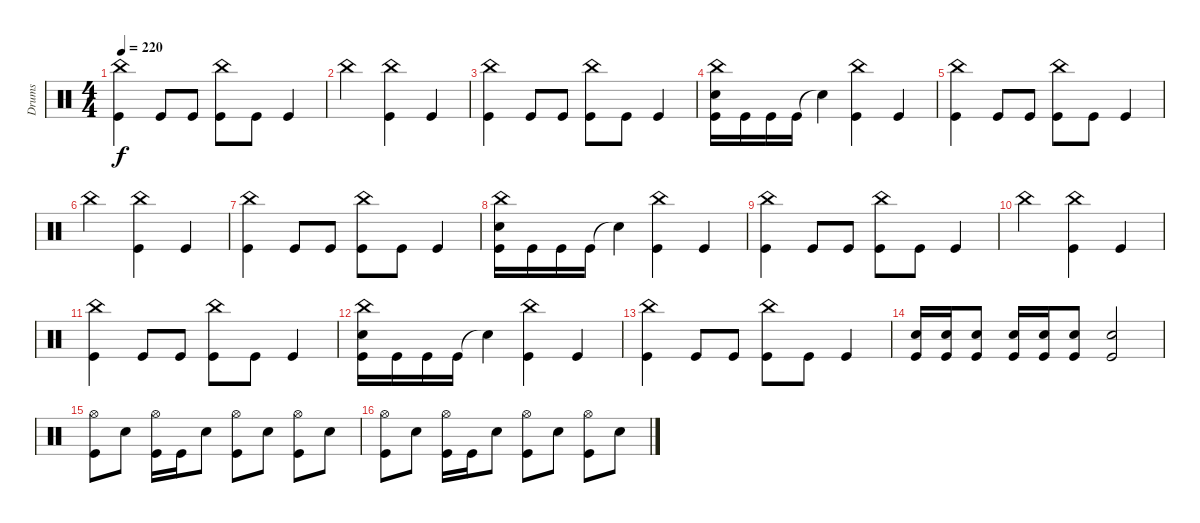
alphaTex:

\track ("Drums" "Drums") {instrument percussion}
\staff {score}
\articulation defaults
\ts (4 4)
\tempo 220
\clef neutral
\ks c
("China (hit)" "Kick (hit)").4{dy f} "Kick (hit)".8 "Kick (hit)".8 ("China (hit)" "Kick (hit)").8 "Kick (hit)".8 "Kick (hit)".4 |
"China (hit)".2 ("China (hit)" "Kick (hit)").4 "Kick (hit)".4 |
("China (hit)" "Kick (hit)").4 "Kick (hit)".8 "Kick (hit)".8 ("China (hit)" "Kick (hit)").8 "Kick (hit)".8 "Kick (hit)".4 |
("China (hit)" "Snare (hit) 2" "Kick (hit)").16 "Kick (hit)".16 "Kick (hit)".16 "Kick (hit)".16 "Snare (hit)"{t}.4 ("China (hit)" "Kick (hit)").4 "Kick (hit)".4 |
("China (hit)" "Kick (hit)").4 "Kick (hit)".8 "Kick (hit)".8 ("China (hit)" "Kick (hit)").8 "Kick (hit)".8 "Kick (hit)".4 |
"China (hit)".2 ("China (hit)" "Kick (hit)").4 "Kick (hit)".4 |
("China (hit)" "Kick (hit)").4 "Kick (hit)".8 "Kick (hit)".8 ("China (hit)" "Kick (hit)").8 "Kick (hit)".8 "Kick (hit)".4 |
("China (hit)" "Snare (hit) 2" "Kick (hit)").16 "Kick (hit)".16 "Kick (hit)".16 "Kick (hit)".16 "Snare (hit)"{t}.4 ("China (hit)" "Kick (hit)").4 "Kick (hit)".4 |
("China (hit)" "Kick (hit)").4 "Kick (hit)".8 "Kick (hit)".8 ("China (hit)" "Kick (hit)").8 "Kick (hit)".8 "Kick (hit)".4 |
"China (hit)".2 ("China (hit)" "Kick (hit)").4 "Kick (hit)".4 |
("China (hit)" "Kick (hit)").4 "Kick (hit)".8 "Kick (hit)".8 ("China (hit)" "Kick (hit)").8 "Kick (hit)".8 "Kick (hit)".4 |
("China (hit)" "Snare (hit) 2" "Kick (hit)").16 "Kick (hit)".16 "Kick (hit)".16 "Kick (hit)".16 "Snare (hit)"{t}.4 ("China (hit)" "Kick (hit)").4 "Kick (hit)".4 |
("China (hit)" "Kick (hit)").4 "Kick (hit)".8 "Kick (hit)".8 ("China (hit)" "Kick (hit)").8 "Kick (hit)".8 "Kick (hit)".4 |
("Snare (hit) 2" "Kick (hit)").16 ("Snare (hit) 2" "Kick (hit)").16 ("Snare (hit) 2" "Kick (hit)").8 ("Snare (hit) 2" "Kick (hit)").16 ("Snare (hit) 2" "Kick (hit)").16 ("Snare (hit) 2" "Kick (hit)").8 ("Snare (hit) 2" "Kick (hit)").2 |
("Hi-Hat (open)" "Kick (hit)").8 "Snare (hit) 2".8 ("Hi-Hat (open)" "Kick (hit)").16 "Kick (hit)".16 "Snare (hit) 2".8 ("Hi-Hat (open)" "Kick (hit)").8 "Snare (hit) 2".8 ("Hi-Hat (open)" "Kick (hit)").8 "Snare (hit) 2".8 |
("Hi-Hat (open)" "Kick (hit)").8 "Snare (hit) 2".8 ("Hi-Hat (open)" "Kick (hit)").16 "Kick (hit)".16 "Snare (hit) 2".8 ("Hi-Hat (open)" "Kick (hit)").8 "Snare (hit) 2".8 ("Hi-Hat (open)" "Kick (hit)").8 "Snare (hit) 2".8
